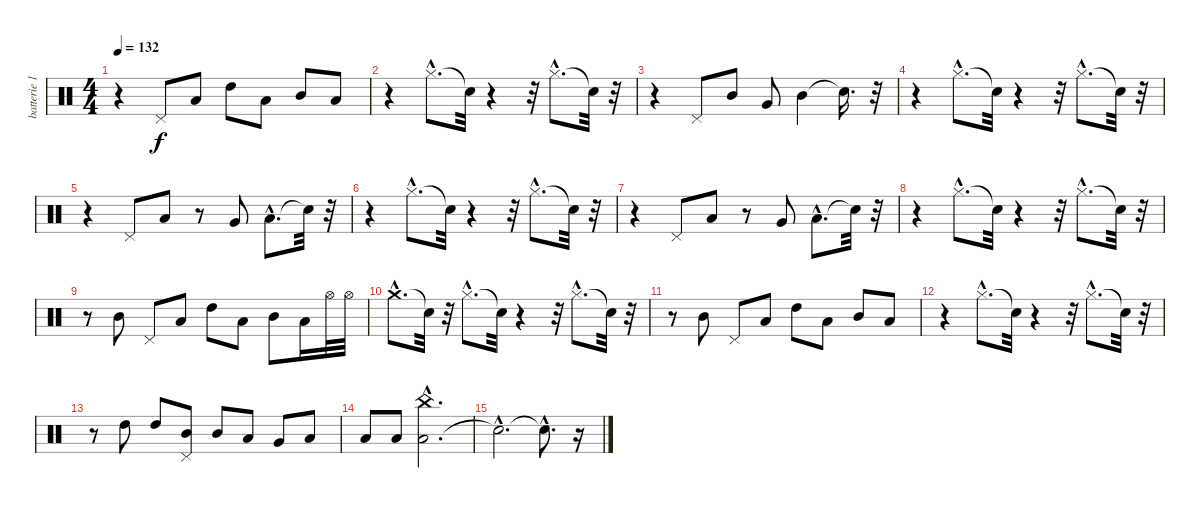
\track ("batterie 1" "batterie 1") {instrument percussion}
\staff {score}
\articulation defaults
\ts (4 4)
\tempo 132
\clef neutral
\ks c
r.4{dy f} "Pedal Hi-Hat (hit)".8 "Low Floor Tom (hit)".8 "High Tom (hit)".8 "Low Floor Tom (hit)".8 "Mid Tom (hit)".8 "Low Floor Tom (hit)".8 |
r.4 "Hi-Hat (closed)"{hac}.8{d} "Snare (hit)"{t}.32 r.4 r.32 "Hi-Hat (closed)"{hac}.8{d} "Snare (hit)"{t}.32 r.32 |
r.4 "Pedal Hi-Hat (hit)".8 "Mid Tom (hit)".8 "Very Low Tom (hit)".8 "Mid Tom (hit)".4 "Snare (hit)"{t}.16{d} r.32 |
r.4 "Hi-Hat (closed)"{hac}.8{d} "Snare (hit)"{t}.32 r.4 r.32 "Hi-Hat (closed)"{hac}.8{d} "Snare (hit)"{t}.32 r.32 |
r.4 "Pedal Hi-Hat (hit)".8 "Low Tom (hit)".8 r.8 "Very Low Tom (hit)".8 "Low Floor Tom (hit)"{hac}.8{d} "Snare (hit)"{t}.32 r.32 |
r.4 "Hi-Hat (closed)"{hac}.8{d} "Snare (hit)"{t}.32 r.4 r.32 "Hi-Hat (closed)"{hac}.8{d} "Snare (hit)"{t}.32 r.32 |
r.4 "Pedal Hi-Hat (hit)".8 "Low Tom (hit)".8 r.8 "Very Low Tom (hit)".8 "Low Floor Tom (hit)"{hac}.8{d} "Snare (hit)"{t}.32 r.32 |
r.4 "Hi-Hat (closed)"{hac}.8{d} "Snare (hit)"{t}.32 r.4 r.32 "Hi-Hat (closed)"{hac}.8{d} "Snare (hit)"{t}.32 r.32 |
r.8 "Mid Tom (hit)".8 "Pedal Hi-Hat (hit)".8 "Low Floor Tom (hit)".8 "High Tom (hit)".8 "Low Tom (hit)".8 "Mid Tom (hit)".8 "Low Floor Tom (hit)".16 "Hi-Hat (open)".32 "Hi-Hat (open)".32 |
"Crash medium (hit)"{hac}.8{d} "Snare (hit)"{t}.32 r.32 "Hi-Hat (closed)"{hac}.8{d} "Snare (hit)"{t}.32 r.4 r.32 "Hi-Hat (closed)"{hac}.8{d} "Snare (hit)"{t}.32 r.32 |
r.8 "Mid Tom (hit)".8 "Pedal Hi-Hat (hit)".8 "Low Floor Tom (hit)".8 "High Tom (hit)".8 "Low Tom (hit)".8 "Mid Tom (hit)".8 "Low Floor Tom (hit)".8 |
r.4 "Hi-Hat (closed)"{hac}.8{d} "Snare (hit)"{t}.32 r.4 r.32 "Hi-Hat (closed)"{hac}.8{d} "Snare (hit)"{t}.32 r.32 |
r.8 "High Tom (hit)".8 "High Tom (hit)".8 ("Pedal Hi-Hat (hit)" "Mid Tom (hit)").8 "Mid Tom (hit)".8 "Low Tom (hit)".8 "Very Low Tom (hit)".8 "Low Floor Tom (hit)".8 |
"Low Floor Tom (hit)".8 "Low Floor Tom (hit)".8 ("Low Floor Tom (hit)" "China (hit)"{hac}).2{d} |
"Snare (hit)"{hac t}.2{d} "Snare (hit)"{hac t}.8{d} r.16
